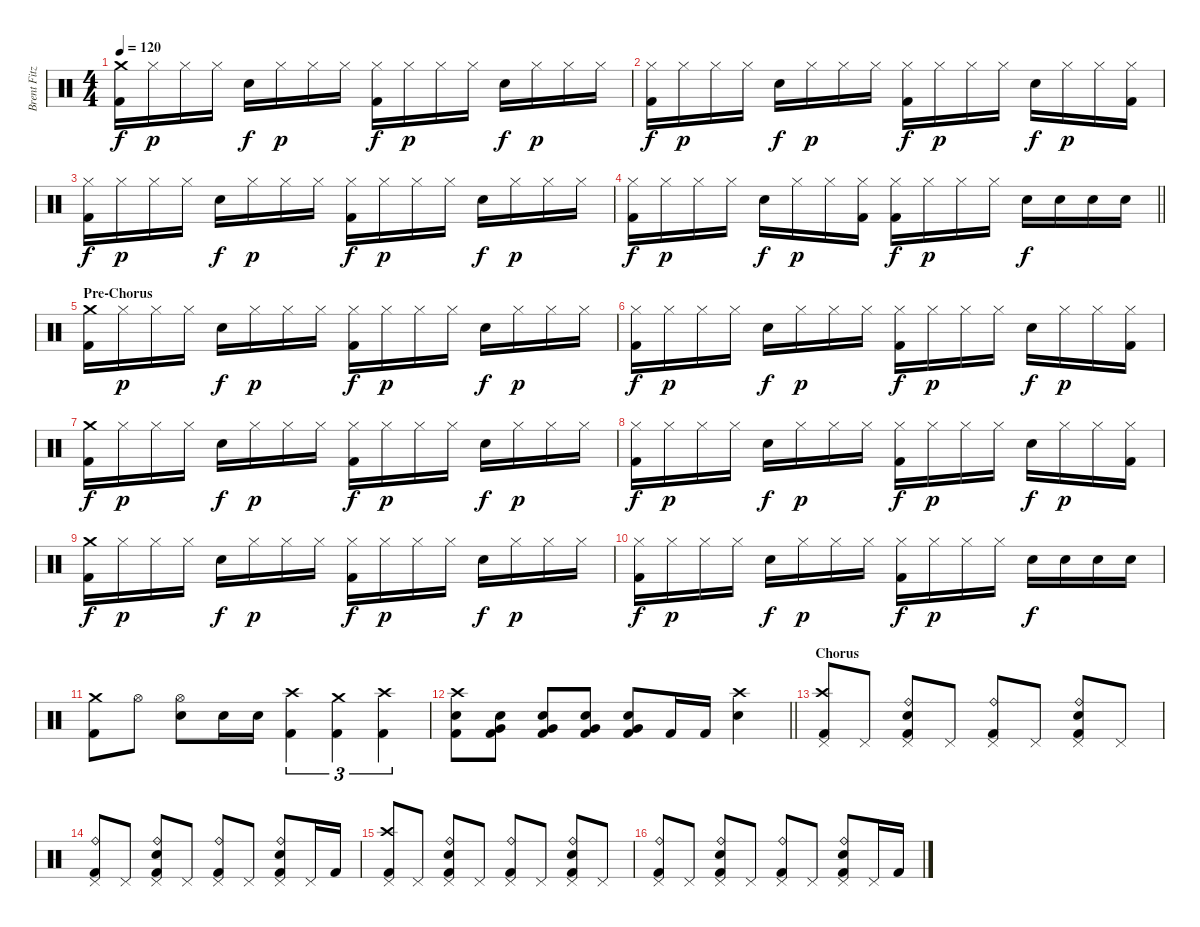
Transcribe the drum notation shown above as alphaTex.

\track ("Brent Fitz" "Brent Fitz") {instrument percussion}
\staff {score}
\articulation defaults
\ts (4 4)
\tempo 120
\clef neutral
\ks c
("Crash medium (hit)" "Kick (hit) 2").16{dy f} "Hi-Hat (closed)".16{dy p} "Hi-Hat (closed)".16 "Hi-Hat (closed)".16 "Electric Snare (hit)".16{dy f} "Hi-Hat (closed)".16{dy p} "Hi-Hat (closed)".16 "Hi-Hat (closed)".16 ("Hi-Hat (closed)" "Kick (hit) 2").16{dy f} "Hi-Hat (closed)".16{dy p} "Hi-Hat (closed)".16 "Hi-Hat (closed)".16 "Electric Snare (hit)".16{dy f} "Hi-Hat (closed)".16{dy p} "Hi-Hat (closed)".16 "Hi-Hat (closed)".16 |
("Hi-Hat (closed)" "Kick (hit) 2").16{dy f} "Hi-Hat (closed)".16{dy p} "Hi-Hat (closed)".16 "Hi-Hat (closed)".16 "Electric Snare (hit)".16{dy f} "Hi-Hat (closed)".16{dy p} "Hi-Hat (closed)".16 "Hi-Hat (closed)".16 ("Hi-Hat (closed)" "Kick (hit) 2").16{dy f} "Hi-Hat (closed)".16{dy p} "Hi-Hat (closed)".16 "Hi-Hat (closed)".16 "Electric Snare (hit)".16{dy f} "Hi-Hat (closed)".16{dy p} "Hi-Hat (closed)".16 ("Hi-Hat (closed)" "Kick (hit) 2").16 |
("Hi-Hat (closed)" "Kick (hit) 2").16{dy f} "Hi-Hat (closed)".16{dy p} "Hi-Hat (closed)".16 "Hi-Hat (closed)".16 "Electric Snare (hit)".16{dy f} "Hi-Hat (closed)".16{dy p} "Hi-Hat (closed)".16 "Hi-Hat (closed)".16 ("Hi-Hat (closed)" "Kick (hit) 2").16{dy f} "Hi-Hat (closed)".16{dy p} "Hi-Hat (closed)".16 "Hi-Hat (closed)".16 "Electric Snare (hit)".16{dy f} "Hi-Hat (closed)".16{dy p} "Hi-Hat (closed)".16 "Hi-Hat (closed)".16 |
\barLineRight lightlight
("Hi-Hat (closed)" "Kick (hit) 2").16{dy f} "Hi-Hat (closed)".16{dy p} "Hi-Hat (closed)".16 "Hi-Hat (closed)".16 "Electric Snare (hit)".16{dy f} "Hi-Hat (closed)".16{dy p} "Hi-Hat (closed)".16 ("Hi-Hat (closed)" "Kick (hit) 2").16 ("Hi-Hat (closed)" "Kick (hit) 2").16{dy f} "Hi-Hat (closed)".16{dy p} "Hi-Hat (closed)".16 "Hi-Hat (closed)".16 "Electric Snare (hit)".16{dy f} "Electric Snare (hit)".16 "Electric Snare (hit)".16 "Electric Snare (hit)".16 |
\section ("" "Pre-Chorus")
("Crash medium (hit)" "Kick (hit) 2").16 "Hi-Hat (closed)".16{dy p} "Hi-Hat (closed)".16 "Hi-Hat (closed)".16 "Electric Snare (hit)".16{dy f} "Hi-Hat (closed)".16{dy p} "Hi-Hat (closed)".16 "Hi-Hat (closed)".16 ("Hi-Hat (closed)" "Kick (hit) 2").16{dy f} "Hi-Hat (closed)".16{dy p} "Hi-Hat (closed)".16 "Hi-Hat (closed)".16 "Electric Snare (hit)".16{dy f} "Hi-Hat (closed)".16{dy p} "Hi-Hat (closed)".16 "Hi-Hat (closed)".16 |
("Hi-Hat (closed)" "Kick (hit) 2").16{dy f} "Hi-Hat (closed)".16{dy p} "Hi-Hat (closed)".16 "Hi-Hat (closed)".16 "Electric Snare (hit)".16{dy f} "Hi-Hat (closed)".16{dy p} "Hi-Hat (closed)".16 "Hi-Hat (closed)".16 ("Hi-Hat (closed)" "Kick (hit) 2").16{dy f} "Hi-Hat (closed)".16{dy p} "Hi-Hat (closed)".16 "Hi-Hat (closed)".16 "Electric Snare (hit)".16{dy f} "Hi-Hat (closed)".16{dy p} "Hi-Hat (closed)".16 ("Hi-Hat (closed)" "Kick (hit) 2").16 |
("Crash medium (hit)" "Kick (hit) 2").16{dy f} "Hi-Hat (closed)".16{dy p} "Hi-Hat (closed)".16 "Hi-Hat (closed)".16 "Electric Snare (hit)".16{dy f} "Hi-Hat (closed)".16{dy p} "Hi-Hat (closed)".16 "Hi-Hat (closed)".16 ("Hi-Hat (closed)" "Kick (hit) 2").16{dy f} "Hi-Hat (closed)".16{dy p} "Hi-Hat (closed)".16 "Hi-Hat (closed)".16 "Electric Snare (hit)".16{dy f} "Hi-Hat (closed)".16{dy p} "Hi-Hat (closed)".16 "Hi-Hat (closed)".16 |
("Hi-Hat (closed)" "Kick (hit) 2").16{dy f} "Hi-Hat (closed)".16{dy p} "Hi-Hat (closed)".16 "Hi-Hat (closed)".16 "Electric Snare (hit)".16{dy f} "Hi-Hat (closed)".16{dy p} "Hi-Hat (closed)".16 "Hi-Hat (closed)".16 ("Hi-Hat (closed)" "Kick (hit) 2").16{dy f} "Hi-Hat (closed)".16{dy p} "Hi-Hat (closed)".16 "Hi-Hat (closed)".16 "Electric Snare (hit)".16{dy f} "Hi-Hat (closed)".16{dy p} "Hi-Hat (closed)".16 ("Hi-Hat (closed)" "Kick (hit) 2").16 |
("Crash medium (hit)" "Kick (hit) 2").16{dy f} "Hi-Hat (closed)".16{dy p} "Hi-Hat (closed)".16 "Hi-Hat (closed)".16 "Electric Snare (hit)".16{dy f} "Hi-Hat (closed)".16{dy p} "Hi-Hat (closed)".16 "Hi-Hat (closed)".16 ("Hi-Hat (closed)" "Kick (hit) 2").16{dy f} "Hi-Hat (closed)".16{dy p} "Hi-Hat (closed)".16 "Hi-Hat (closed)".16 "Electric Snare (hit)".16{dy f} "Hi-Hat (closed)".16{dy p} "Hi-Hat (closed)".16 "Hi-Hat (closed)".16 |
("Hi-Hat (closed)" "Kick (hit) 2").16{dy f} "Hi-Hat (closed)".16{dy p} "Hi-Hat (closed)".16 "Hi-Hat (closed)".16 "Electric Snare (hit)".16{dy f} "Hi-Hat (closed)".16{dy p} "Hi-Hat (closed)".16 "Hi-Hat (closed)".16 ("Hi-Hat (closed)" "Kick (hit) 2").16{dy f} "Hi-Hat (closed)".16{dy p} "Hi-Hat (closed)".16 "Hi-Hat (closed)".16 "Electric Snare (hit)".16{dy f} "Electric Snare (hit)".16 "Electric Snare (hit)".16 "Electric Snare (hit)".16 |
("Crash medium (hit)" "Kick (hit) 2").8 "Hi-Hat (open)".8 ("Hi-Hat (open)" "Electric Snare (hit)").8 "Electric Snare (hit)".16 "Electric Snare (hit)".16 ("Crash high (hit)" "Kick (hit) 2").4{tu (3 2)} ("Crash medium (hit)" "Kick (hit) 2").4{tu (3 2)} ("Crash high (hit)" "Kick (hit) 2").4{tu (3 2)} |
\barLineRight lightlight
("Crash high (hit)" "Electric Snare (hit)" "Kick (hit) 2").8 ("Electric Snare (hit)" "Very Low Tom (hit)" "Kick (hit) 2").8 ("Electric Snare (hit)" "Very Low Tom (hit)" "Kick (hit) 2").8 ("Electric Snare (hit)" "Very Low Tom (hit)" "Kick (hit) 2").8 ("Electric Snare (hit)" "Very Low Tom (hit)" "Kick (hit) 2").8 "Kick (hit) 2".16 "Kick (hit) 2".16 ("Crash high (hit)" "Electric Snare (hit)").4 |
\section ("" "Chorus")
("Crash high (hit)" "Pedal Hi-Hat (hit)" "Kick (hit) 2").8 "Pedal Hi-Hat (hit)".8 ("Ride (bell)" "Electric Snare (hit)" "Pedal Hi-Hat (hit)" "Kick (hit) 2").8 "Pedal Hi-Hat (hit)".8 ("Ride (bell)" "Pedal Hi-Hat (hit)" "Kick (hit) 2").8 "Pedal Hi-Hat (hit)".8 ("Ride (bell)" "Electric Snare (hit)" "Pedal Hi-Hat (hit)" "Kick (hit) 2").8 "Pedal Hi-Hat (hit)".8 |
("Ride (bell)" "Pedal Hi-Hat (hit)" "Kick (hit) 2").8 "Pedal Hi-Hat (hit)".8 ("Ride (bell)" "Electric Snare (hit)" "Pedal Hi-Hat (hit)" "Kick (hit) 2").8 "Pedal Hi-Hat (hit)".8 ("Ride (bell)" "Pedal Hi-Hat (hit)" "Kick (hit) 2").8 "Pedal Hi-Hat (hit)".8 ("Ride (bell)" "Electric Snare (hit)" "Pedal Hi-Hat (hit)" "Kick (hit) 2").8 "Pedal Hi-Hat (hit)".16 "Kick (hit) 2".16 |
("Crash high (hit)" "Pedal Hi-Hat (hit)" "Kick (hit) 2").8 "Pedal Hi-Hat (hit)".8 ("Ride (bell)" "Electric Snare (hit)" "Pedal Hi-Hat (hit)" "Kick (hit) 2").8 "Pedal Hi-Hat (hit)".8 ("Ride (bell)" "Pedal Hi-Hat (hit)" "Kick (hit) 2").8 "Pedal Hi-Hat (hit)".8 ("Ride (bell)" "Electric Snare (hit)" "Pedal Hi-Hat (hit)" "Kick (hit) 2").8 "Pedal Hi-Hat (hit)".8 |
("Ride (bell)" "Pedal Hi-Hat (hit)" "Kick (hit) 2").8 "Pedal Hi-Hat (hit)".8 ("Ride (bell)" "Electric Snare (hit)" "Pedal Hi-Hat (hit)" "Kick (hit) 2").8 "Pedal Hi-Hat (hit)".8 ("Ride (bell)" "Pedal Hi-Hat (hit)" "Kick (hit) 2").8 "Pedal Hi-Hat (hit)".8 ("Ride (bell)" "Electric Snare (hit)" "Pedal Hi-Hat (hit)" "Kick (hit) 2").8 "Pedal Hi-Hat (hit)".16 "Kick (hit) 2".16
